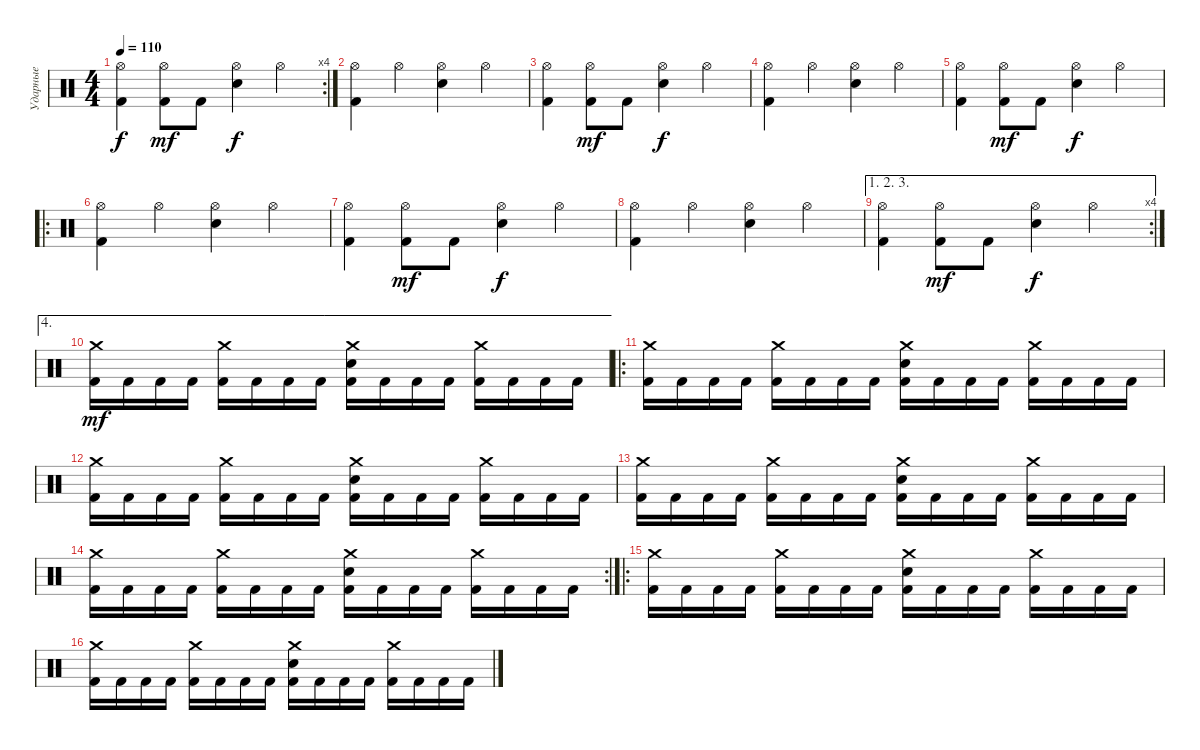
\track ("Ударные" "Ударные") {instrument percussion}
\staff {score}
\articulation defaults
\rc 4
\ts (4 4)
\tempo 110
\clef neutral
\ks c
("Hi-Hat (open)" "Kick (hit) 2").4{dy f} ("Hi-Hat (open)" "Kick (hit) 2").8{dy mf} "Kick (hit) 2".8 ("Hi-Hat (open)" "Electric Snare (hit)").4{dy f} "Hi-Hat (open)".4 |
("Hi-Hat (open)" "Kick (hit) 2").4 "Hi-Hat (open)".4 ("Hi-Hat (open)" "Electric Snare (hit)").4 "Hi-Hat (open)".4 |
("Hi-Hat (open)" "Kick (hit) 2").4 ("Hi-Hat (open)" "Kick (hit) 2").8{dy mf} "Kick (hit) 2".8 ("Hi-Hat (open)" "Electric Snare (hit)").4{dy f} "Hi-Hat (open)".4 |
("Hi-Hat (open)" "Kick (hit) 2").4 "Hi-Hat (open)".4 ("Hi-Hat (open)" "Electric Snare (hit)").4 "Hi-Hat (open)".4 |
("Hi-Hat (open)" "Kick (hit) 2").4 ("Hi-Hat (open)" "Kick (hit) 2").8{dy mf} "Kick (hit) 2".8 ("Hi-Hat (open)" "Electric Snare (hit)").4{dy f} "Hi-Hat (open)".4 |
\ro
("Hi-Hat (open)" "Kick (hit) 2").4 "Hi-Hat (open)".4 ("Hi-Hat (open)" "Electric Snare (hit)").4 "Hi-Hat (open)".4 |
("Hi-Hat (open)" "Kick (hit) 2").4 ("Hi-Hat (open)" "Kick (hit) 2").8{dy mf} "Kick (hit) 2".8 ("Hi-Hat (open)" "Electric Snare (hit)").4{dy f} "Hi-Hat (open)".4 |
("Hi-Hat (open)" "Kick (hit) 2").4 "Hi-Hat (open)".4 ("Hi-Hat (open)" "Electric Snare (hit)").4 "Hi-Hat (open)".4 |
\ae (1 2 3)
\rc 4
("Hi-Hat (open)" "Kick (hit) 2").4 ("Hi-Hat (open)" "Kick (hit) 2").8{dy mf} "Kick (hit) 2".8 ("Hi-Hat (open)" "Electric Snare (hit)").4{dy f} "Hi-Hat (open)".4 |
\ae 4
("Crash medium (hit)" "Kick (hit) 2").16{dy mf} "Kick (hit) 2".16 "Kick (hit) 2".16 "Kick (hit) 2".16 ("Crash medium (hit)" "Kick (hit) 2").16 "Kick (hit) 2".16 "Kick (hit) 2".16 "Kick (hit) 2".16 ("Crash medium (hit)" "Electric Snare (hit)" "Kick (hit) 2").16 "Kick (hit) 2".16 "Kick (hit) 2".16 "Kick (hit) 2".16 ("Crash medium (hit)" "Kick (hit) 2").16 "Kick (hit) 2".16 "Kick (hit) 2".16 "Kick (hit) 2".16 |
\ro
("Crash medium (hit)" "Kick (hit) 2").16 "Kick (hit) 2".16 "Kick (hit) 2".16 "Kick (hit) 2".16 ("Crash medium (hit)" "Kick (hit) 2").16 "Kick (hit) 2".16 "Kick (hit) 2".16 "Kick (hit) 2".16 ("Crash medium (hit)" "Electric Snare (hit)" "Kick (hit) 2").16 "Kick (hit) 2".16 "Kick (hit) 2".16 "Kick (hit) 2".16 ("Crash medium (hit)" "Kick (hit) 2").16 "Kick (hit) 2".16 "Kick (hit) 2".16 "Kick (hit) 2".16 |
("Crash medium (hit)" "Kick (hit) 2").16 "Kick (hit) 2".16 "Kick (hit) 2".16 "Kick (hit) 2".16 ("Crash medium (hit)" "Kick (hit) 2").16 "Kick (hit) 2".16 "Kick (hit) 2".16 "Kick (hit) 2".16 ("Crash medium (hit)" "Electric Snare (hit)" "Kick (hit) 2").16 "Kick (hit) 2".16 "Kick (hit) 2".16 "Kick (hit) 2".16 ("Crash medium (hit)" "Kick (hit) 2").16 "Kick (hit) 2".16 "Kick (hit) 2".16 "Kick (hit) 2".16 |
("Crash medium (hit)" "Kick (hit) 2").16 "Kick (hit) 2".16 "Kick (hit) 2".16 "Kick (hit) 2".16 ("Crash medium (hit)" "Kick (hit) 2").16 "Kick (hit) 2".16 "Kick (hit) 2".16 "Kick (hit) 2".16 ("Crash medium (hit)" "Electric Snare (hit)" "Kick (hit) 2").16 "Kick (hit) 2".16 "Kick (hit) 2".16 "Kick (hit) 2".16 ("Crash medium (hit)" "Kick (hit) 2").16 "Kick (hit) 2".16 "Kick (hit) 2".16 "Kick (hit) 2".16 |
\rc 2
("Crash medium (hit)" "Kick (hit) 2").16 "Kick (hit) 2".16 "Kick (hit) 2".16 "Kick (hit) 2".16 ("Crash medium (hit)" "Kick (hit) 2").16 "Kick (hit) 2".16 "Kick (hit) 2".16 "Kick (hit) 2".16 ("Crash medium (hit)" "Electric Snare (hit)" "Kick (hit) 2").16 "Kick (hit) 2".16 "Kick (hit) 2".16 "Kick (hit) 2".16 ("Crash medium (hit)" "Kick (hit) 2").16 "Kick (hit) 2".16 "Kick (hit) 2".16 "Kick (hit) 2".16 |
\ro
("Crash medium (hit)" "Kick (hit) 2").16 "Kick (hit) 2".16 "Kick (hit) 2".16 "Kick (hit) 2".16 ("Crash medium (hit)" "Kick (hit) 2").16 "Kick (hit) 2".16 "Kick (hit) 2".16 "Kick (hit) 2".16 ("Crash medium (hit)" "Electric Snare (hit)" "Kick (hit) 2").16 "Kick (hit) 2".16 "Kick (hit) 2".16 "Kick (hit) 2".16 ("Crash medium (hit)" "Kick (hit) 2").16 "Kick (hit) 2".16 "Kick (hit) 2".16 "Kick (hit) 2".16 |
("Crash medium (hit)" "Kick (hit) 2").16 "Kick (hit) 2".16 "Kick (hit) 2".16 "Kick (hit) 2".16 ("Crash medium (hit)" "Kick (hit) 2").16 "Kick (hit) 2".16 "Kick (hit) 2".16 "Kick (hit) 2".16 ("Crash medium (hit)" "Electric Snare (hit)" "Kick (hit) 2").16 "Kick (hit) 2".16 "Kick (hit) 2".16 "Kick (hit) 2".16 ("Crash medium (hit)" "Kick (hit) 2").16 "Kick (hit) 2".16 "Kick (hit) 2".16 "Kick (hit) 2".16
